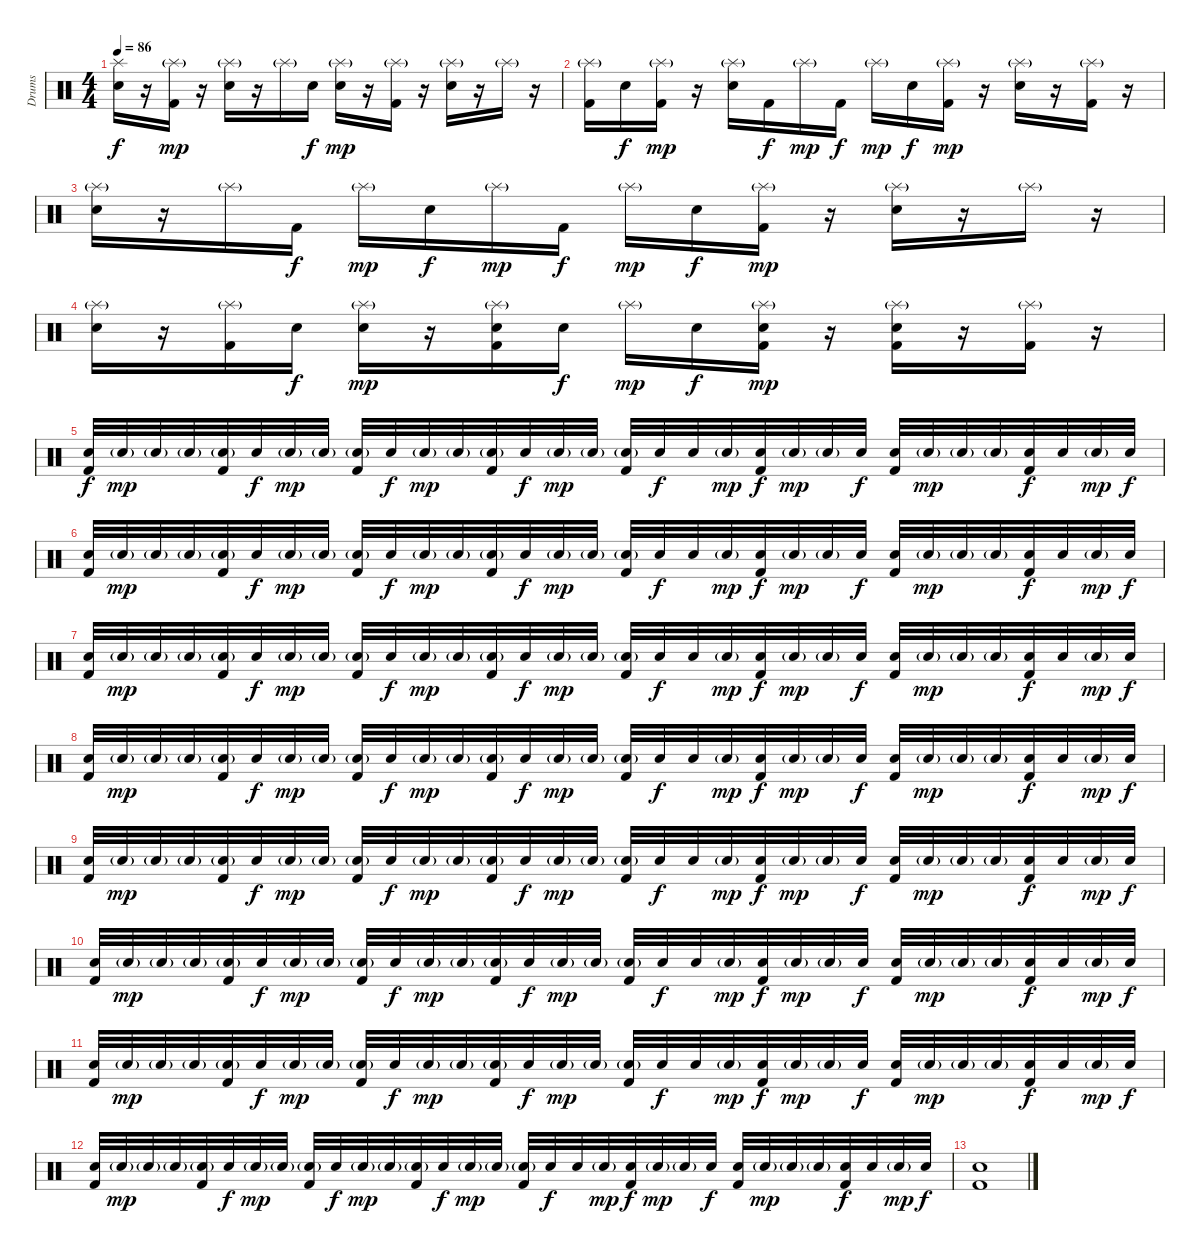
\track ("Drums" "Drums") {instrument percussion}
\staff {score}
\articulation defaults
\ts (4 4)
\tempo 86
\clef neutral
\ks c
("Splash (hit)" "Snare (hit) 2").16{dy f} r.16 ("Splash (hit)"{g} "Kick (hit) 2").16{dy mp} r.16 ("Splash (hit)"{g} "Snare (hit) 2").16 r.16 "Splash (hit)"{g}.16 "Snare (hit) 2".16{dy f} ("Splash (hit)"{g} "Snare (hit) 2").16{dy mp} r.16 ("Splash (hit)"{g} "Kick (hit) 2").16 r.16 ("Splash (hit)"{g} "Snare (hit) 2").16 r.16 "Splash (hit)"{g}.16 r.16 |
("Splash (hit)"{g} "Kick (hit) 2").16 "Snare (hit) 2".16{dy f} ("Splash (hit)"{g} "Kick (hit) 2").16{dy mp} r.16 ("Splash (hit)"{g} "Snare (hit) 2").16 "Kick (hit) 2".16{dy f} "Splash (hit)"{g}.16{dy mp} "Kick (hit) 2".16{dy f} "Splash (hit)"{g}.16{dy mp} "Snare (hit) 2".16{dy f} ("Splash (hit)"{g} "Kick (hit) 2").16{dy mp} r.16 ("Splash (hit)"{g} "Snare (hit) 2").16 r.16 ("Splash (hit)"{g} "Kick (hit) 2").16 r.16 |
("Splash (hit)"{g} "Snare (hit) 2").16 r.16 "Splash (hit)"{g}.16 "Kick (hit) 2".16{dy f} "Splash (hit)"{g}.16{dy mp} "Snare (hit) 2".16{dy f} "Splash (hit)"{g}.16{dy mp} "Kick (hit) 2".16{dy f} "Splash (hit)"{g}.16{dy mp} "Snare (hit) 2".16{dy f} ("Splash (hit)"{g} "Kick (hit) 2").16{dy mp} r.16 ("Splash (hit)"{g} "Snare (hit) 2").16 r.16 "Splash (hit)"{g}.16 r.16 |
("Splash (hit)"{g} "Snare (hit) 2").16 r.16 ("Splash (hit)"{g} "Kick (hit) 2").16 "Snare (hit) 2".16{dy f} ("Splash (hit)"{g} "Snare (hit) 2").16{dy mp} r.16 ("Splash (hit)"{g} "Snare (hit) 2" "Kick (hit) 2").16 "Snare (hit) 2".16{dy f} "Splash (hit)"{g}.16{dy mp} "Snare (hit) 2".16{dy f} ("Splash (hit)"{g} "Snare (hit) 2" "Kick (hit) 2").16{dy mp} r.16 ("Splash (hit)"{g} "Snare (hit) 2" "Kick (hit) 2").16 r.16 ("Splash (hit)"{g} "Kick (hit) 2").16 r.16 |
("Snare (hit) 2" "Kick (hit) 2").32{dy f} "Snare (hit) 2"{g}.32{dy mp} "Snare (hit) 2"{g}.32 "Snare (hit) 2"{g}.32 ("Snare (hit) 2"{g} "Kick (hit) 2").32 "Snare (hit) 2".32{dy f} "Snare (hit) 2"{g}.32{dy mp} "Snare (hit) 2"{g}.32 ("Snare (hit) 2"{g} "Kick (hit) 2").32 "Snare (hit) 2".32{dy f} "Snare (hit) 2"{g}.32{dy mp} "Snare (hit) 2"{g}.32 ("Snare (hit) 2"{g} "Kick (hit) 2").32 "Snare (hit) 2".32{dy f} "Snare (hit) 2"{g}.32{dy mp} "Snare (hit) 2"{g}.32 ("Snare (hit) 2"{g} "Kick (hit) 2").32 "Snare (hit) 2".32{dy f} "Snare (hit) 2".32 "Snare (hit) 2"{g}.32{dy mp} ("Snare (hit) 2" "Kick (hit) 2").32{dy f} "Snare (hit) 2"{g}.32{dy mp} "Snare (hit) 2"{g}.32 "Snare (hit) 2".32{dy f} ("Snare (hit) 2" "Kick (hit) 2").32 "Snare (hit) 2"{g}.32{dy mp} "Snare (hit) 2"{g}.32 "Snare (hit) 2"{g}.32 ("Snare (hit) 2" "Kick (hit) 2").32{dy f} "Snare (hit) 2".32 "Snare (hit) 2"{g}.32{dy mp} "Snare (hit) 2".32{dy f} |
("Snare (hit) 2" "Kick (hit) 2").32 "Snare (hit) 2"{g}.32{dy mp} "Snare (hit) 2"{g}.32 "Snare (hit) 2"{g}.32 ("Snare (hit) 2"{g} "Kick (hit) 2").32 "Snare (hit) 2".32{dy f} "Snare (hit) 2"{g}.32{dy mp} "Snare (hit) 2"{g}.32 ("Snare (hit) 2"{g} "Kick (hit) 2").32 "Snare (hit) 2".32{dy f} "Snare (hit) 2"{g}.32{dy mp} "Snare (hit) 2"{g}.32 ("Snare (hit) 2"{g} "Kick (hit) 2").32 "Snare (hit) 2".32{dy f} "Snare (hit) 2"{g}.32{dy mp} "Snare (hit) 2"{g}.32 ("Snare (hit) 2"{g} "Kick (hit) 2").32 "Snare (hit) 2".32{dy f} "Snare (hit) 2".32 "Snare (hit) 2"{g}.32{dy mp} ("Snare (hit) 2" "Kick (hit) 2").32{dy f} "Snare (hit) 2"{g}.32{dy mp} "Snare (hit) 2"{g}.32 "Snare (hit) 2".32{dy f} ("Snare (hit) 2" "Kick (hit) 2").32 "Snare (hit) 2"{g}.32{dy mp} "Snare (hit) 2"{g}.32 "Snare (hit) 2"{g}.32 ("Snare (hit) 2" "Kick (hit) 2").32{dy f} "Snare (hit) 2".32 "Snare (hit) 2"{g}.32{dy mp} "Snare (hit) 2".32{dy f} |
("Snare (hit) 2" "Kick (hit) 2").32 "Snare (hit) 2"{g}.32{dy mp} "Snare (hit) 2"{g}.32 "Snare (hit) 2"{g}.32 ("Snare (hit) 2"{g} "Kick (hit) 2").32 "Snare (hit) 2".32{dy f} "Snare (hit) 2"{g}.32{dy mp} "Snare (hit) 2"{g}.32 ("Snare (hit) 2"{g} "Kick (hit) 2").32 "Snare (hit) 2".32{dy f} "Snare (hit) 2"{g}.32{dy mp} "Snare (hit) 2"{g}.32 ("Snare (hit) 2"{g} "Kick (hit) 2").32 "Snare (hit) 2".32{dy f} "Snare (hit) 2"{g}.32{dy mp} "Snare (hit) 2"{g}.32 ("Snare (hit) 2"{g} "Kick (hit) 2").32 "Snare (hit) 2".32{dy f} "Snare (hit) 2".32 "Snare (hit) 2"{g}.32{dy mp} ("Snare (hit) 2" "Kick (hit) 2").32{dy f} "Snare (hit) 2"{g}.32{dy mp} "Snare (hit) 2"{g}.32 "Snare (hit) 2".32{dy f} ("Snare (hit) 2" "Kick (hit) 2").32 "Snare (hit) 2"{g}.32{dy mp} "Snare (hit) 2"{g}.32 "Snare (hit) 2"{g}.32 ("Snare (hit) 2" "Kick (hit) 2").32{dy f} "Snare (hit) 2".32 "Snare (hit) 2"{g}.32{dy mp} "Snare (hit) 2".32{dy f} |
("Snare (hit) 2" "Kick (hit) 2").32 "Snare (hit) 2"{g}.32{dy mp} "Snare (hit) 2"{g}.32 "Snare (hit) 2"{g}.32 ("Snare (hit) 2"{g} "Kick (hit) 2").32 "Snare (hit) 2".32{dy f} "Snare (hit) 2"{g}.32{dy mp} "Snare (hit) 2"{g}.32 ("Snare (hit) 2"{g} "Kick (hit) 2").32 "Snare (hit) 2".32{dy f} "Snare (hit) 2"{g}.32{dy mp} "Snare (hit) 2"{g}.32 ("Snare (hit) 2"{g} "Kick (hit) 2").32 "Snare (hit) 2".32{dy f} "Snare (hit) 2"{g}.32{dy mp} "Snare (hit) 2"{g}.32 ("Snare (hit) 2"{g} "Kick (hit) 2").32 "Snare (hit) 2".32{dy f} "Snare (hit) 2".32 "Snare (hit) 2"{g}.32{dy mp} ("Snare (hit) 2" "Kick (hit) 2").32{dy f} "Snare (hit) 2"{g}.32{dy mp} "Snare (hit) 2"{g}.32 "Snare (hit) 2".32{dy f} ("Snare (hit) 2" "Kick (hit) 2").32 "Snare (hit) 2"{g}.32{dy mp} "Snare (hit) 2"{g}.32 "Snare (hit) 2"{g}.32 ("Snare (hit) 2" "Kick (hit) 2").32{dy f} "Snare (hit) 2".32 "Snare (hit) 2"{g}.32{dy mp} "Snare (hit) 2".32{dy f} |
("Snare (hit) 2" "Kick (hit) 2").32 "Snare (hit) 2"{g}.32{dy mp} "Snare (hit) 2"{g}.32 "Snare (hit) 2"{g}.32 ("Snare (hit) 2"{g} "Kick (hit) 2").32 "Snare (hit) 2".32{dy f} "Snare (hit) 2"{g}.32{dy mp} "Snare (hit) 2"{g}.32 ("Snare (hit) 2"{g} "Kick (hit) 2").32 "Snare (hit) 2".32{dy f} "Snare (hit) 2"{g}.32{dy mp} "Snare (hit) 2"{g}.32 ("Snare (hit) 2"{g} "Kick (hit) 2").32 "Snare (hit) 2".32{dy f} "Snare (hit) 2"{g}.32{dy mp} "Snare (hit) 2"{g}.32 ("Snare (hit) 2"{g} "Kick (hit) 2").32 "Snare (hit) 2".32{dy f} "Snare (hit) 2".32 "Snare (hit) 2"{g}.32{dy mp} ("Snare (hit) 2" "Kick (hit) 2").32{dy f} "Snare (hit) 2"{g}.32{dy mp} "Snare (hit) 2"{g}.32 "Snare (hit) 2".32{dy f} ("Snare (hit) 2" "Kick (hit) 2").32 "Snare (hit) 2"{g}.32{dy mp} "Snare (hit) 2"{g}.32 "Snare (hit) 2"{g}.32 ("Snare (hit) 2" "Kick (hit) 2").32{dy f} "Snare (hit) 2".32 "Snare (hit) 2"{g}.32{dy mp} "Snare (hit) 2".32{dy f} |
("Snare (hit) 2" "Kick (hit) 2").32 "Snare (hit) 2"{g}.32{dy mp} "Snare (hit) 2"{g}.32 "Snare (hit) 2"{g}.32 ("Snare (hit) 2"{g} "Kick (hit) 2").32 "Snare (hit) 2".32{dy f} "Snare (hit) 2"{g}.32{dy mp} "Snare (hit) 2"{g}.32 ("Snare (hit) 2"{g} "Kick (hit) 2").32 "Snare (hit) 2".32{dy f} "Snare (hit) 2"{g}.32{dy mp} "Snare (hit) 2"{g}.32 ("Snare (hit) 2"{g} "Kick (hit) 2").32 "Snare (hit) 2".32{dy f} "Snare (hit) 2"{g}.32{dy mp} "Snare (hit) 2"{g}.32 ("Snare (hit) 2"{g} "Kick (hit) 2").32 "Snare (hit) 2".32{dy f} "Snare (hit) 2".32 "Snare (hit) 2"{g}.32{dy mp} ("Snare (hit) 2" "Kick (hit) 2").32{dy f} "Snare (hit) 2"{g}.32{dy mp} "Snare (hit) 2"{g}.32 "Snare (hit) 2".32{dy f} ("Snare (hit) 2" "Kick (hit) 2").32 "Snare (hit) 2"{g}.32{dy mp} "Snare (hit) 2"{g}.32 "Snare (hit) 2"{g}.32 ("Snare (hit) 2" "Kick (hit) 2").32{dy f} "Snare (hit) 2".32 "Snare (hit) 2"{g}.32{dy mp} "Snare (hit) 2".32{dy f} |
("Snare (hit) 2" "Kick (hit) 2").32 "Snare (hit) 2"{g}.32{dy mp} "Snare (hit) 2"{g}.32 "Snare (hit) 2"{g}.32 ("Snare (hit) 2"{g} "Kick (hit) 2").32 "Snare (hit) 2".32{dy f} "Snare (hit) 2"{g}.32{dy mp} "Snare (hit) 2"{g}.32 ("Snare (hit) 2"{g} "Kick (hit) 2").32 "Snare (hit) 2".32{dy f} "Snare (hit) 2"{g}.32{dy mp} "Snare (hit) 2"{g}.32 ("Snare (hit) 2"{g} "Kick (hit) 2").32 "Snare (hit) 2".32{dy f} "Snare (hit) 2"{g}.32{dy mp} "Snare (hit) 2"{g}.32 ("Snare (hit) 2"{g} "Kick (hit) 2").32 "Snare (hit) 2".32{dy f} "Snare (hit) 2".32 "Snare (hit) 2"{g}.32{dy mp} ("Snare (hit) 2" "Kick (hit) 2").32{dy f} "Snare (hit) 2"{g}.32{dy mp} "Snare (hit) 2"{g}.32 "Snare (hit) 2".32{dy f} ("Snare (hit) 2" "Kick (hit) 2").32 "Snare (hit) 2"{g}.32{dy mp} "Snare (hit) 2"{g}.32 "Snare (hit) 2"{g}.32 ("Snare (hit) 2" "Kick (hit) 2").32{dy f} "Snare (hit) 2".32 "Snare (hit) 2"{g}.32{dy mp} "Snare (hit) 2".32{dy f} |
("Snare (hit) 2" "Kick (hit) 2").32 "Snare (hit) 2"{g}.32{dy mp} "Snare (hit) 2"{g}.32 "Snare (hit) 2"{g}.32 ("Snare (hit) 2"{g} "Kick (hit) 2").32 "Snare (hit) 2".32{dy f} "Snare (hit) 2"{g}.32{dy mp} "Snare (hit) 2"{g}.32 ("Snare (hit) 2"{g} "Kick (hit) 2").32 "Snare (hit) 2".32{dy f} "Snare (hit) 2"{g}.32{dy mp} "Snare (hit) 2"{g}.32 ("Snare (hit) 2"{g} "Kick (hit) 2").32 "Snare (hit) 2".32{dy f} "Snare (hit) 2"{g}.32{dy mp} "Snare (hit) 2"{g}.32 ("Snare (hit) 2"{g} "Kick (hit) 2").32 "Snare (hit) 2".32{dy f} "Snare (hit) 2".32 "Snare (hit) 2"{g}.32{dy mp} ("Snare (hit) 2" "Kick (hit) 2").32{dy f} "Snare (hit) 2"{g}.32{dy mp} "Snare (hit) 2"{g}.32 "Snare (hit) 2".32{dy f} ("Snare (hit) 2" "Kick (hit) 2").32 "Snare (hit) 2"{g}.32{dy mp} "Snare (hit) 2"{g}.32 "Snare (hit) 2"{g}.32 ("Snare (hit) 2" "Kick (hit) 2").32{dy f} "Snare (hit) 2".32 "Snare (hit) 2"{g}.32{dy mp} "Snare (hit) 2".32{dy f} |
("Snare (hit) 2" "Kick (hit) 2").1
